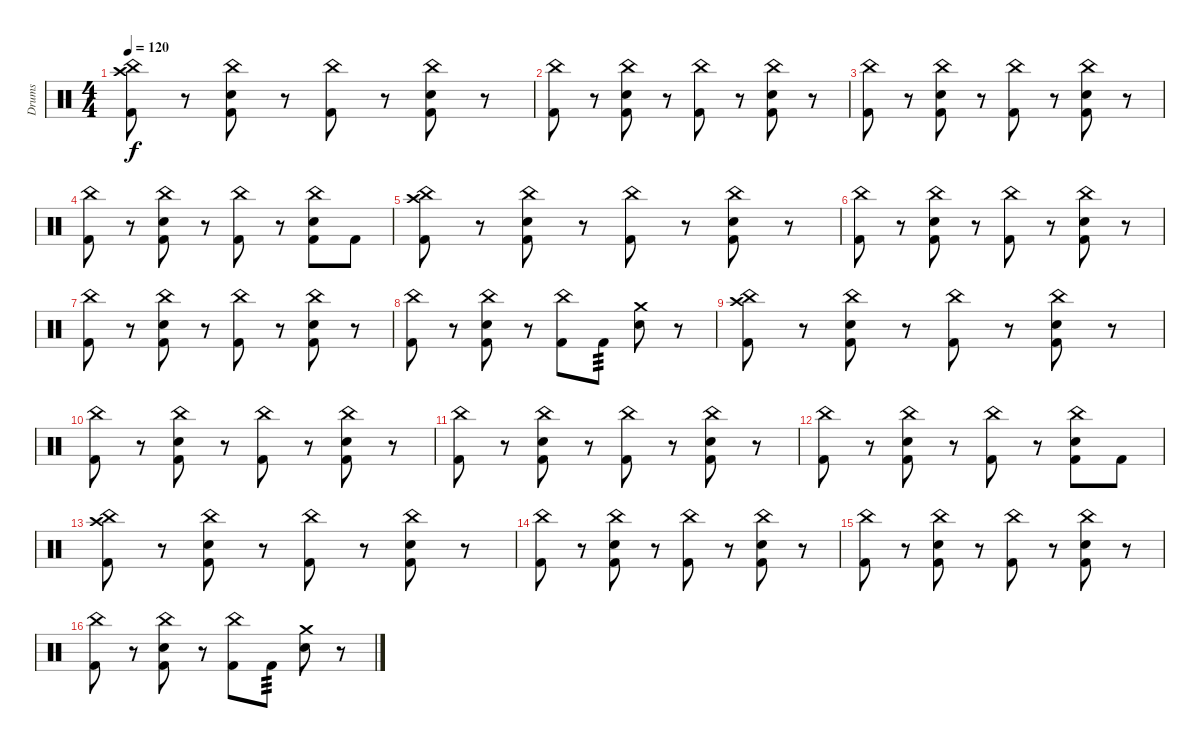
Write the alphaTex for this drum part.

\track ("Drums" "Drums") {instrument percussion}
\staff {score}
\articulation defaults
\ts (4 4)
\tempo 120
\clef neutral
\ks c
("China (hit)" "Crash high (hit)" "Kick (hit) 2").8{dy f} r.8 ("China (hit)" "Electric Snare (hit)" "Kick (hit) 2").8 r.8 ("China (hit)" "Kick (hit) 2").8 r.8 ("China (hit)" "Electric Snare (hit)" "Kick (hit) 2").8 r.8 |
("China (hit)" "Kick (hit) 2").8 r.8 ("China (hit)" "Electric Snare (hit)" "Kick (hit) 2").8 r.8 ("China (hit)" "Kick (hit) 2").8 r.8 ("China (hit)" "Electric Snare (hit)" "Kick (hit) 2").8 r.8 |
("China (hit)" "Kick (hit) 2").8 r.8 ("China (hit)" "Electric Snare (hit)" "Kick (hit) 2").8 r.8 ("China (hit)" "Kick (hit) 2").8 r.8 ("China (hit)" "Electric Snare (hit)" "Kick (hit) 2").8 r.8 |
("China (hit)" "Kick (hit) 2").8 r.8 ("China (hit)" "Electric Snare (hit)" "Kick (hit) 2").8 r.8 ("China (hit)" "Kick (hit) 2").8 r.8 ("China (hit)" "Electric Snare (hit)" "Kick (hit) 2").8 "Kick (hit) 2".8 |
("China (hit)" "Crash high (hit)" "Kick (hit) 2").8 r.8 ("China (hit)" "Electric Snare (hit)" "Kick (hit) 2").8 r.8 ("China (hit)" "Kick (hit) 2").8 r.8 ("China (hit)" "Electric Snare (hit)" "Kick (hit) 2").8 r.8 |
("China (hit)" "Kick (hit) 2").8 r.8 ("China (hit)" "Electric Snare (hit)" "Kick (hit) 2").8 r.8 ("China (hit)" "Kick (hit) 2").8 r.8 ("China (hit)" "Electric Snare (hit)" "Kick (hit) 2").8 r.8 |
("China (hit)" "Kick (hit) 2").8 r.8 ("China (hit)" "Electric Snare (hit)" "Kick (hit) 2").8 r.8 ("China (hit)" "Kick (hit) 2").8 r.8 ("China (hit)" "Electric Snare (hit)" "Kick (hit) 2").8 r.8 |
("China (hit)" "Kick (hit) 2").8 r.8 ("China (hit)" "Electric Snare (hit)" "Kick (hit) 2").8 r.8 ("China (hit)" "Kick (hit) 2").8 "Kick (hit) 2".8{tp 3} ("Crash medium (hit)" "Electric Snare (hit)").8 r.8 |
("China (hit)" "Crash high (hit)" "Kick (hit) 2").8 r.8 ("China (hit)" "Electric Snare (hit)" "Kick (hit) 2").8 r.8 ("China (hit)" "Kick (hit) 2").8 r.8 ("China (hit)" "Electric Snare (hit)" "Kick (hit) 2").8 r.8 |
("China (hit)" "Kick (hit) 2").8 r.8 ("China (hit)" "Electric Snare (hit)" "Kick (hit) 2").8 r.8 ("China (hit)" "Kick (hit) 2").8 r.8 ("China (hit)" "Electric Snare (hit)" "Kick (hit) 2").8 r.8 |
("China (hit)" "Kick (hit) 2").8 r.8 ("China (hit)" "Electric Snare (hit)" "Kick (hit) 2").8 r.8 ("China (hit)" "Kick (hit) 2").8 r.8 ("China (hit)" "Electric Snare (hit)" "Kick (hit) 2").8 r.8 |
("China (hit)" "Kick (hit) 2").8 r.8 ("China (hit)" "Electric Snare (hit)" "Kick (hit) 2").8 r.8 ("China (hit)" "Kick (hit) 2").8 r.8 ("China (hit)" "Electric Snare (hit)" "Kick (hit) 2").8 "Kick (hit) 2".8 |
("China (hit)" "Crash high (hit)" "Kick (hit) 2").8 r.8 ("China (hit)" "Electric Snare (hit)" "Kick (hit) 2").8 r.8 ("China (hit)" "Kick (hit) 2").8 r.8 ("China (hit)" "Electric Snare (hit)" "Kick (hit) 2").8 r.8 |
("China (hit)" "Kick (hit) 2").8 r.8 ("China (hit)" "Electric Snare (hit)" "Kick (hit) 2").8 r.8 ("China (hit)" "Kick (hit) 2").8 r.8 ("China (hit)" "Electric Snare (hit)" "Kick (hit) 2").8 r.8 |
("China (hit)" "Kick (hit) 2").8 r.8 ("China (hit)" "Electric Snare (hit)" "Kick (hit) 2").8 r.8 ("China (hit)" "Kick (hit) 2").8 r.8 ("China (hit)" "Electric Snare (hit)" "Kick (hit) 2").8 r.8 |
("China (hit)" "Kick (hit) 2").8 r.8 ("China (hit)" "Electric Snare (hit)" "Kick (hit) 2").8 r.8 ("China (hit)" "Kick (hit) 2").8 "Kick (hit) 2".8{tp 3} ("Crash medium (hit)" "Electric Snare (hit)").8 r.8
